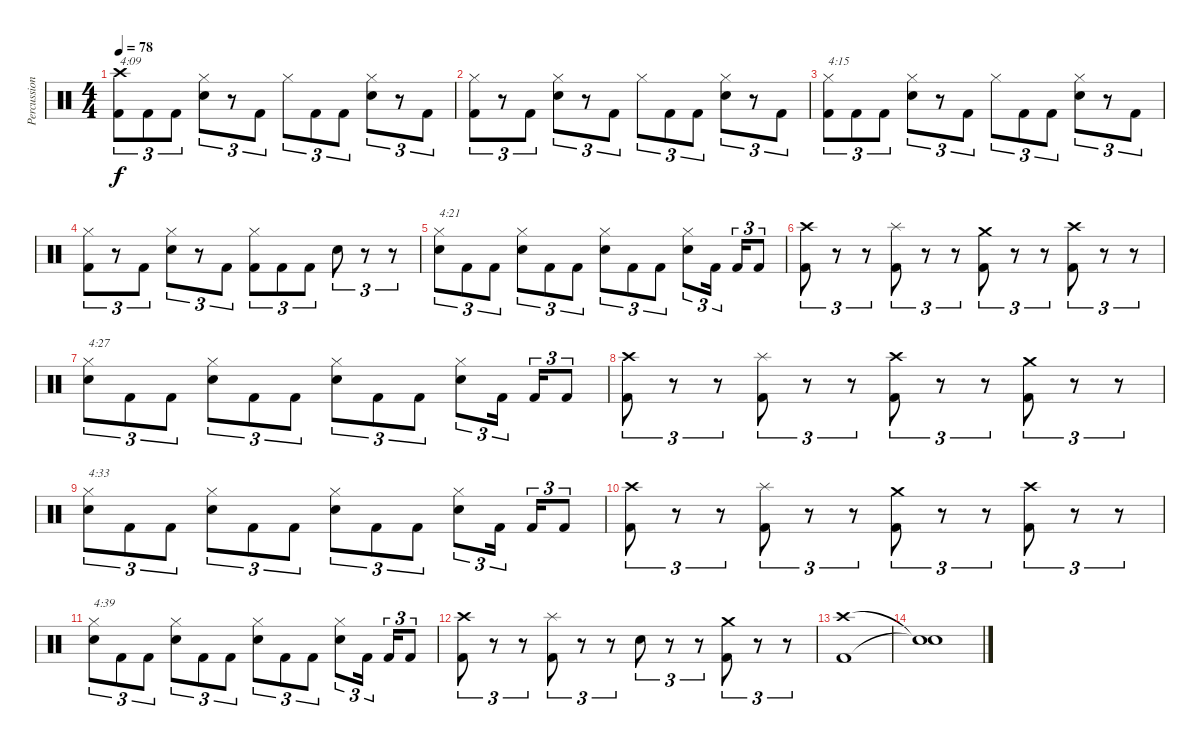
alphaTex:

\track ("Percussion" "Percussion") {instrument percussion}
\staff {score}
\articulation defaults
\ts (4 4)
\tempo 78
\clef neutral
\ks c
("Crash high (hit)" "Kick (hit) 2").8{tu (3 2) txt "4:09" dy f} "Kick (hit) 2".8{tu (3 2)} "Kick (hit) 2".8{tu (3 2)} ("Hi-Hat (closed)" "Electric Snare (hit)").8{tu (3 2)} r.8{tu (3 2)} "Kick (hit) 2".8{tu (3 2)} "Hi-Hat (closed)".8{tu (3 2)} "Kick (hit) 2".8{tu (3 2)} "Kick (hit) 2".8{tu (3 2)} ("Hi-Hat (closed)" "Electric Snare (hit)").8{tu (3 2)} r.8{tu (3 2)} "Kick (hit) 2".8{tu (3 2)} |
("Hi-Hat (closed)" "Kick (hit) 2").8{tu (3 2)} r.8{tu (3 2)} "Kick (hit) 2".8{tu (3 2)} ("Hi-Hat (closed)" "Electric Snare (hit)").8{tu (3 2)} r.8{tu (3 2)} "Kick (hit) 2".8{tu (3 2)} "Hi-Hat (closed)".8{tu (3 2)} "Kick (hit) 2".8{tu (3 2)} "Kick (hit) 2".8{tu (3 2)} ("Hi-Hat (closed)" "Electric Snare (hit)").8{tu (3 2)} r.8{tu (3 2)} "Kick (hit) 2".8{tu (3 2)} |
("Hi-Hat (closed)" "Kick (hit) 2").8{tu (3 2) txt "4:15"} "Kick (hit) 2".8{tu (3 2)} "Kick (hit) 2".8{tu (3 2)} ("Hi-Hat (closed)" "Electric Snare (hit)").8{tu (3 2)} r.8{tu (3 2)} "Kick (hit) 2".8{tu (3 2)} "Hi-Hat (closed)".8{tu (3 2)} "Kick (hit) 2".8{tu (3 2)} "Kick (hit) 2".8{tu (3 2)} ("Hi-Hat (closed)" "Electric Snare (hit)").8{tu (3 2)} r.8{tu (3 2)} "Kick (hit) 2".8{tu (3 2)} |
("Hi-Hat (closed)" "Kick (hit) 2").8{tu (3 2)} r.8{tu (3 2)} "Kick (hit) 2".8{tu (3 2)} ("Hi-Hat (closed)" "Electric Snare (hit)").8{tu (3 2)} r.8{tu (3 2)} "Kick (hit) 2".8{tu (3 2)} ("Hi-Hat (closed)" "Kick (hit) 2").8{tu (3 2)} "Kick (hit) 2".8{tu (3 2)} "Kick (hit) 2".8{tu (3 2)} "Electric Snare (hit)".8{tu (3 2)} r.8{tu (3 2)} r.8{tu (3 2)} |
("Hi-Hat (closed)" "Electric Snare (hit)").8{tu (3 2) txt "4:21"} "Kick (hit) 2".8{tu (3 2)} "Kick (hit) 2".8{tu (3 2)} ("Hi-Hat (closed)" "Electric Snare (hit)").8{tu (3 2)} "Kick (hit) 2".8{tu (3 2)} "Kick (hit) 2".8{tu (3 2)} ("Hi-Hat (closed)" "Electric Snare (hit)").8{tu (3 2)} "Kick (hit) 2".8{tu (3 2)} "Kick (hit) 2".8{tu (3 2)} ("Hi-Hat (closed)" "Electric Snare (hit)").8{tu (3 2)} "Kick (hit) 2".16{tu (3 2)} "Kick (hit) 2".16{tu (3 2)} "Kick (hit) 2".8{tu (3 2)} |
("Crash high (hit)" "Kick (hit) 2").8{tu (3 2)} r.8{tu (3 2)} r.8{tu (3 2)} ("Splash (hit)" "Kick (hit) 2").8{tu (3 2)} r.8{tu (3 2)} r.8{tu (3 2)} ("Crash medium (hit)" "Kick (hit) 2").8{tu (3 2)} r.8{tu (3 2)} r.8{tu (3 2)} ("Crash high (hit)" "Kick (hit) 2").8{tu (3 2)} r.8{tu (3 2)} r.8{tu (3 2)} |
("Hi-Hat (closed)" "Electric Snare (hit)").8{tu (3 2) txt "4:27"} "Kick (hit) 2".8{tu (3 2)} "Kick (hit) 2".8{tu (3 2)} ("Hi-Hat (closed)" "Electric Snare (hit)").8{tu (3 2)} "Kick (hit) 2".8{tu (3 2)} "Kick (hit) 2".8{tu (3 2)} ("Hi-Hat (closed)" "Electric Snare (hit)").8{tu (3 2)} "Kick (hit) 2".8{tu (3 2)} "Kick (hit) 2".8{tu (3 2)} ("Hi-Hat (closed)" "Electric Snare (hit)").8{tu (3 2)} "Kick (hit) 2".16{tu (3 2)} "Kick (hit) 2".16{tu (3 2)} "Kick (hit) 2".8{tu (3 2)} |
("Crash high (hit)" "Kick (hit) 2").8{tu (3 2)} r.8{tu (3 2)} r.8{tu (3 2)} ("Splash (hit)" "Kick (hit) 2").8{tu (3 2)} r.8{tu (3 2)} r.8{tu (3 2)} ("Crash high (hit)" "Kick (hit) 2").8{tu (3 2)} r.8{tu (3 2)} r.8{tu (3 2)} ("Crash medium (hit)" "Kick (hit) 2").8{tu (3 2)} r.8{tu (3 2)} r.8{tu (3 2)} |
("Hi-Hat (closed)" "Electric Snare (hit)").8{tu (3 2) txt "4:33"} "Kick (hit) 2".8{tu (3 2)} "Kick (hit) 2".8{tu (3 2)} ("Hi-Hat (closed)" "Electric Snare (hit)").8{tu (3 2)} "Kick (hit) 2".8{tu (3 2)} "Kick (hit) 2".8{tu (3 2)} ("Hi-Hat (closed)" "Electric Snare (hit)").8{tu (3 2)} "Kick (hit) 2".8{tu (3 2)} "Kick (hit) 2".8{tu (3 2)} ("Hi-Hat (closed)" "Electric Snare (hit)").8{tu (3 2)} "Kick (hit) 2".16{tu (3 2)} "Kick (hit) 2".16{tu (3 2)} "Kick (hit) 2".8{tu (3 2)} |
("Crash high (hit)" "Kick (hit) 2").8{tu (3 2)} r.8{tu (3 2)} r.8{tu (3 2)} ("Splash (hit)" "Kick (hit) 2").8{tu (3 2)} r.8{tu (3 2)} r.8{tu (3 2)} ("Crash medium (hit)" "Kick (hit) 2").8{tu (3 2)} r.8{tu (3 2)} r.8{tu (3 2)} ("Crash high (hit)" "Kick (hit) 2").8{tu (3 2)} r.8{tu (3 2)} r.8{tu (3 2)} |
("Hi-Hat (closed)" "Electric Snare (hit)").8{tu (3 2) txt "4:39"} "Kick (hit) 2".8{tu (3 2)} "Kick (hit) 2".8{tu (3 2)} ("Hi-Hat (closed)" "Electric Snare (hit)").8{tu (3 2)} "Kick (hit) 2".8{tu (3 2)} "Kick (hit) 2".8{tu (3 2)} ("Hi-Hat (closed)" "Electric Snare (hit)").8{tu (3 2)} "Kick (hit) 2".8{tu (3 2)} "Kick (hit) 2".8{tu (3 2)} ("Hi-Hat (closed)" "Electric Snare (hit)").8{tu (3 2)} "Kick (hit) 2".16{tu (3 2)} "Kick (hit) 2".16{tu (3 2)} "Kick (hit) 2".8{tu (3 2)} |
("Crash high (hit)" "Kick (hit) 2").8{tu (3 2)} r.8{tu (3 2)} r.8{tu (3 2)} ("Splash (hit)" "Kick (hit) 2").8{tu (3 2)} r.8{tu (3 2)} r.8{tu (3 2)} "Electric Snare (hit)".8{tu (3 2)} r.8{tu (3 2)} r.8{tu (3 2)} ("Crash medium (hit)" "Kick (hit) 2").8{tu (3 2)} r.8{tu (3 2)} r.8{tu (3 2)} |
("Crash high (hit)" "Kick (hit) 2").1 |
("Snare (hit)"{t} "Snare (hit)"{t}).1
